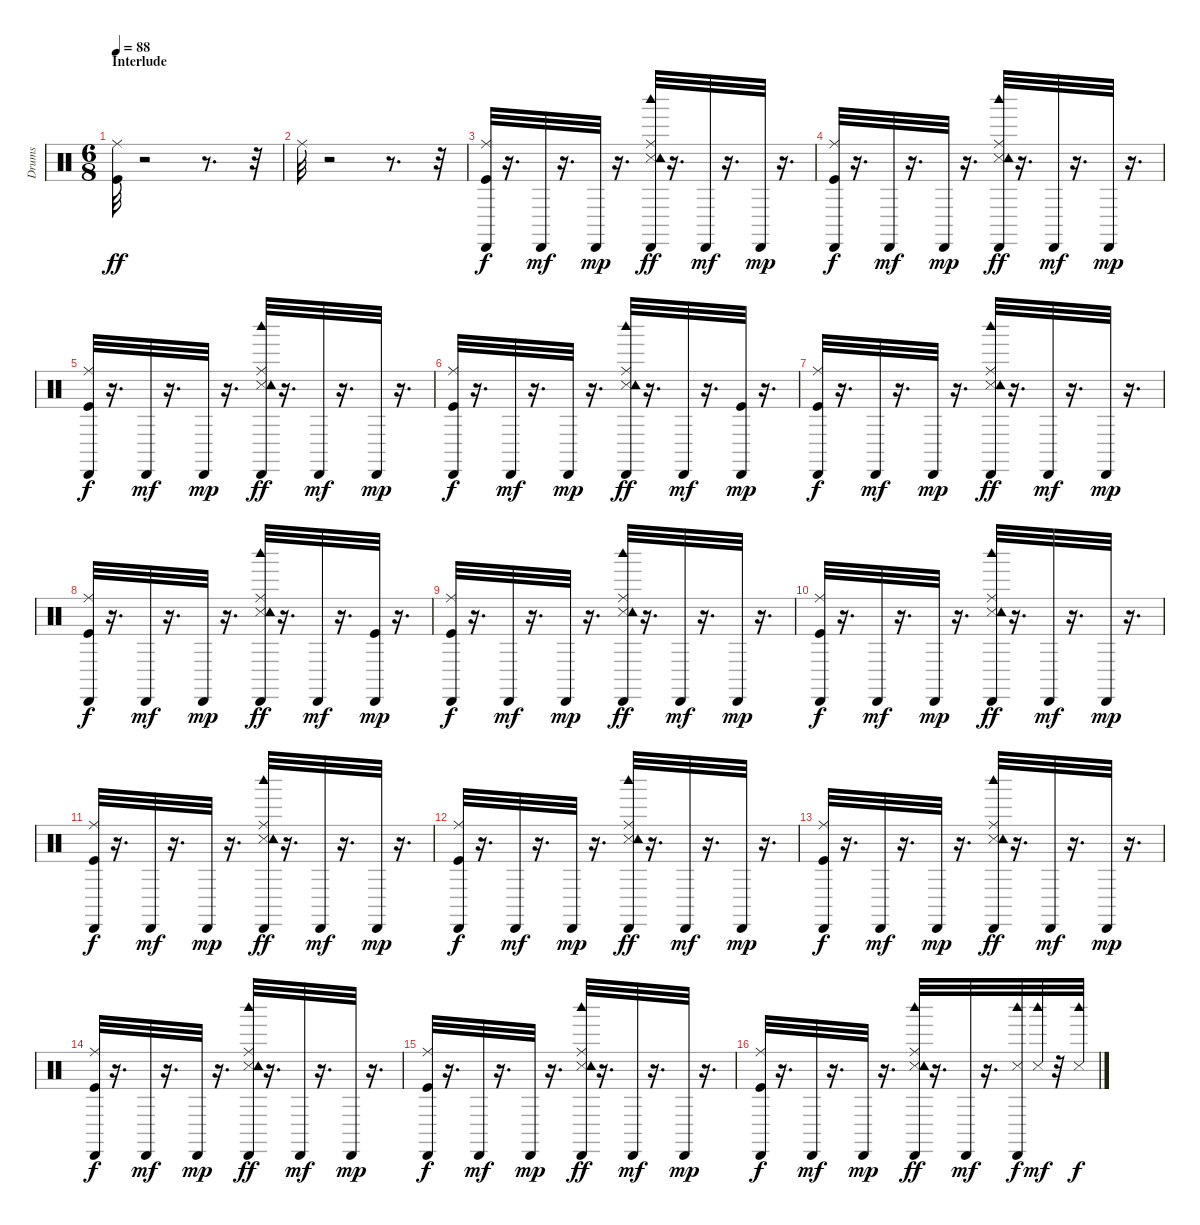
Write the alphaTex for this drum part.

\track ("Drums               " "Drums     ") {instrument percussion}
\staff {score}
\articulation defaults
\ts (6 8)
\section ("" "Interlude")
\tempo 88
\clef neutral
\ks c
("Kick (hit)" "Ride (middle)").32{dy ff} r.2 r.8{d} r.32 |
"Ride (middle)".32 r.2 r.8{d} r.32 |
("Kick (hit)" "Ride (middle)" "Cabasa (hit)").32{dy f} r.16{d} "Cabasa (hit)".32{dy mf} r.16{d} "Cabasa (hit)".32{dy mp} r.16{d} ("Snare (side stick) 3" "Ride (middle)" "Tambourine (hit)" "Cabasa (hit)" "Woodblock high (hit)").32{dy ff} r.16{d} "Cabasa (hit)".32{dy mf} r.16{d} "Cabasa (hit)".32{dy mp} r.16{d} |
("Kick (hit)" "Ride (middle)" "Cabasa (hit)").32{dy f} r.16{d} "Cabasa (hit)".32{dy mf} r.16{d} "Cabasa (hit)".32{dy mp} r.16{d} ("Snare (side stick) 3" "Ride (middle)" "Tambourine (hit)" "Cabasa (hit)" "Woodblock high (hit)").32{dy ff} r.16{d} "Cabasa (hit)".32{dy mf} r.16{d} "Cabasa (hit)".32{dy mp} r.16{d} |
("Kick (hit)" "Ride (middle)" "Cabasa (hit)").32{dy f} r.16{d} "Cabasa (hit)".32{dy mf} r.16{d} "Cabasa (hit)".32{dy mp} r.16{d} ("Snare (side stick) 3" "Ride (middle)" "Tambourine (hit)" "Cabasa (hit)" "Woodblock high (hit)").32{dy ff} r.16{d} "Cabasa (hit)".32{dy mf} r.16{d} "Cabasa (hit)".32{dy mp} r.16{d} |
("Kick (hit)" "Ride (middle)" "Cabasa (hit)").32{dy f} r.16{d} "Cabasa (hit)".32{dy mf} r.16{d} "Cabasa (hit)".32{dy mp} r.16{d} ("Snare (side stick) 3" "Ride (middle)" "Tambourine (hit)" "Cabasa (hit)" "Woodblock high (hit)").32{dy ff} r.16{d} "Cabasa (hit)".32{dy mf} r.16{d} ("Kick (hit)" "Cabasa (hit)").32{dy mp} r.16{d} |
("Kick (hit)" "Ride (middle)" "Cabasa (hit)").32{dy f} r.16{d} "Cabasa (hit)".32{dy mf} r.16{d} "Cabasa (hit)".32{dy mp} r.16{d} ("Snare (side stick) 3" "Ride (middle)" "Tambourine (hit)" "Cabasa (hit)" "Woodblock high (hit)").32{dy ff} r.16{d} "Cabasa (hit)".32{dy mf} r.16{d} "Cabasa (hit)".32{dy mp} r.16{d} |
("Kick (hit)" "Ride (middle)" "Cabasa (hit)").32{dy f} r.16{d} "Cabasa (hit)".32{dy mf} r.16{d} "Cabasa (hit)".32{dy mp} r.16{d} ("Snare (side stick) 3" "Ride (middle)" "Tambourine (hit)" "Cabasa (hit)" "Woodblock high (hit)").32{dy ff} r.16{d} "Cabasa (hit)".32{dy mf} r.16{d} ("Kick (hit)" "Cabasa (hit)").32{dy mp} r.16{d} |
("Kick (hit)" "Ride (middle)" "Cabasa (hit)").32{dy f} r.16{d} "Cabasa (hit)".32{dy mf} r.16{d} "Cabasa (hit)".32{dy mp} r.16{d} ("Snare (side stick) 3" "Ride (middle)" "Tambourine (hit)" "Cabasa (hit)" "Woodblock high (hit)").32{dy ff} r.16{d} "Cabasa (hit)".32{dy mf} r.16{d} "Cabasa (hit)".32{dy mp} r.16{d} |
("Kick (hit)" "Ride (middle)" "Cabasa (hit)").32{dy f} r.16{d} "Cabasa (hit)".32{dy mf} r.16{d} "Cabasa (hit)".32{dy mp} r.16{d} ("Snare (side stick) 3" "Ride (middle)" "Tambourine (hit)" "Cabasa (hit)" "Woodblock high (hit)").32{dy ff} r.16{d} "Cabasa (hit)".32{dy mf} r.16{d} "Cabasa (hit)".32{dy mp} r.16{d} |
("Kick (hit)" "Ride (middle)" "Cabasa (hit)").32{dy f} r.16{d} "Cabasa (hit)".32{dy mf} r.16{d} "Cabasa (hit)".32{dy mp} r.16{d} ("Snare (side stick) 3" "Ride (middle)" "Tambourine (hit)" "Cabasa (hit)" "Woodblock high (hit)").32{dy ff} r.16{d} "Cabasa (hit)".32{dy mf} r.16{d} "Cabasa (hit)".32{dy mp} r.16{d} |
("Kick (hit)" "Ride (middle)" "Cabasa (hit)").32{dy f} r.16{d} "Cabasa (hit)".32{dy mf} r.16{d} "Cabasa (hit)".32{dy mp} r.16{d} ("Snare (side stick) 3" "Ride (middle)" "Tambourine (hit)" "Cabasa (hit)" "Woodblock high (hit)").32{dy ff} r.16{d} "Cabasa (hit)".32{dy mf} r.16{d} "Cabasa (hit)".32{dy mp} r.16{d} |
("Kick (hit)" "Ride (middle)" "Cabasa (hit)").32{dy f} r.16{d} "Cabasa (hit)".32{dy mf} r.16{d} "Cabasa (hit)".32{dy mp} r.16{d} ("Snare (side stick) 3" "Ride (middle)" "Tambourine (hit)" "Cabasa (hit)" "Woodblock high (hit)").32{dy ff} r.16{d} "Cabasa (hit)".32{dy mf} r.16{d} "Cabasa (hit)".32{dy mp} r.16{d} |
("Kick (hit)" "Ride (middle)" "Cabasa (hit)").32{dy f} r.16{d} "Cabasa (hit)".32{dy mf} r.16{d} "Cabasa (hit)".32{dy mp} r.16{d} ("Snare (side stick) 3" "Ride (middle)" "Tambourine (hit)" "Cabasa (hit)" "Woodblock high (hit)").32{dy ff} r.16{d} "Cabasa (hit)".32{dy mf} r.16{d} "Cabasa (hit)".32{dy mp} r.16{d} |
("Kick (hit)" "Ride (middle)" "Cabasa (hit)").32{dy f} r.16{d} "Cabasa (hit)".32{dy mf} r.16{d} "Cabasa (hit)".32{dy mp} r.16{d} ("Snare (side stick) 3" "Ride (middle)" "Tambourine (hit)" "Cabasa (hit)" "Woodblock high (hit)").32{dy ff} r.16{d} "Cabasa (hit)".32{dy mf} r.16{d} "Cabasa (hit)".32{dy mp} r.16{d} |
("Kick (hit)" "Ride (middle)" "Cabasa (hit)").32{dy f} r.16{d} "Cabasa (hit)".32{dy mf} r.16{d} "Cabasa (hit)".32{dy mp} r.16{d} ("Snare (side stick) 3" "Ride (middle)" "Tambourine (hit)" "Cabasa (hit)" "Woodblock high (hit)").32{dy ff} r.16{d} "Cabasa (hit)".32{dy mf} r.16{d} ("Snare (side stick) 3" "Cabasa (hit)" "Woodblock high (hit)").32{dy f} ("Snare (side stick) 3" "Woodblock high (hit)").32{dy mf} r.32 ("Snare (side stick) 3" "Woodblock high (hit)").32{dy f}
